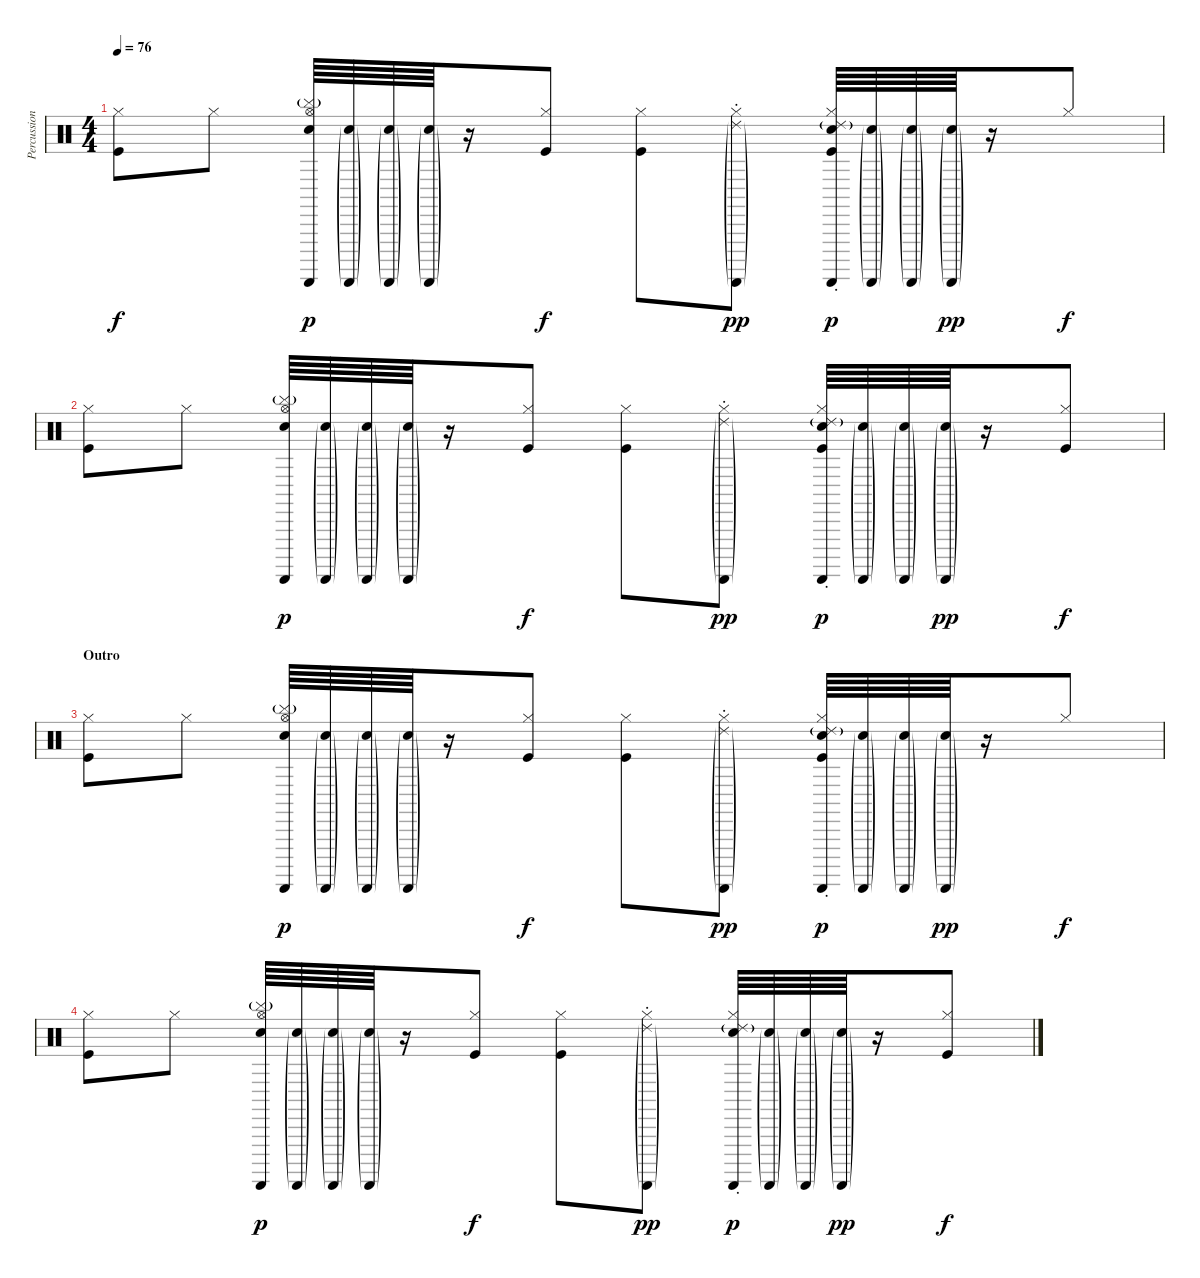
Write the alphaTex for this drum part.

\track ("Percussion" "Percussion") {instrument percussion}
\staff {score}
\articulation defaults
\ts (4 4)
\tempo 76
\clef neutral
\ks c
("Hi-Hat (closed)" "Kick (hit)").8{dy f} "Hi-Hat (closed)".8 ("Hi-Hat (open)" "Cymbal (hit)"{g} "Snare (hit) 2" "Guiro (scrap-return)").64{dy p} ("Snare (hit) 2"{g} "Guiro (scrap-return)"{g}).64 ("Snare (hit) 2"{g} "Guiro (scrap-return)"{g}).64 ("Snare (hit) 2"{g} "Guiro (scrap-return)"{g}).64 r.16 ("Hi-Hat (closed)" "Kick (hit)").8{dy f} ("Hi-Hat (closed)" "Kick (hit)").8 ("Hi-Hat (closed)" "Ride (choke) 2"{g} "Guiro (scrap-return)"{g}).8{dy pp} ("Hi-Hat (closed)" "Ride (choke) 2"{g} "Snare (hit) 2" "Guiro (scrap-return)" "Kick (hit)").64{dy p} ("Snare (hit) 2"{g} "Guiro (scrap-return)"{g}).64 ("Snare (hit) 2"{g} "Guiro (scrap-return)"{g}).64 ("Snare (hit) 2"{g} "Guiro (scrap-return)"{g}).64{dy pp} r.16 "Hi-Hat (closed)".8{dy f} |
("Hi-Hat (closed)" "Kick (hit)").8 "Hi-Hat (closed)".8 ("Hi-Hat (open)" "Cymbal (hit)"{g} "Snare (hit) 2" "Guiro (scrap-return)").64{dy p} ("Snare (hit) 2"{g} "Guiro (scrap-return)"{g}).64 ("Snare (hit) 2"{g} "Guiro (scrap-return)"{g}).64 ("Snare (hit) 2"{g} "Guiro (scrap-return)"{g}).64 r.16 ("Hi-Hat (closed)" "Kick (hit)").8{dy f} ("Hi-Hat (closed)" "Kick (hit)").8 ("Hi-Hat (closed)" "Ride (choke) 2"{g} "Guiro (scrap-return)"{g}).8{dy pp} ("Hi-Hat (closed)" "Ride (choke) 2"{g} "Snare (hit) 2" "Guiro (scrap-return)" "Kick (hit)").64{dy p} ("Snare (hit) 2"{g} "Guiro (scrap-return)"{g}).64 ("Snare (hit) 2"{g} "Guiro (scrap-return)"{g}).64 ("Snare (hit) 2"{g} "Guiro (scrap-return)"{g}).64{dy pp} r.16 ("Hi-Hat (closed)" "Kick (hit)").8{dy f} |
\section ("" "Outro")
("Hi-Hat (closed)" "Kick (hit)").8 "Hi-Hat (closed)".8 ("Hi-Hat (open)" "Cymbal (hit)"{g} "Snare (hit) 2" "Guiro (scrap-return)").64{dy p} ("Snare (hit) 2"{g} "Guiro (scrap-return)"{g}).64 ("Snare (hit) 2"{g} "Guiro (scrap-return)"{g}).64 ("Snare (hit) 2"{g} "Guiro (scrap-return)"{g}).64 r.16 ("Hi-Hat (closed)" "Kick (hit)").8{dy f} ("Hi-Hat (closed)" "Kick (hit)").8 ("Hi-Hat (closed)" "Ride (choke) 2"{g} "Guiro (scrap-return)"{g}).8{dy pp} ("Hi-Hat (closed)" "Ride (choke) 2"{g} "Snare (hit) 2" "Guiro (scrap-return)" "Kick (hit)").64{dy p} ("Snare (hit) 2"{g} "Guiro (scrap-return)"{g}).64 ("Snare (hit) 2"{g} "Guiro (scrap-return)"{g}).64 ("Snare (hit) 2"{g} "Guiro (scrap-return)"{g}).64{dy pp} r.16 "Hi-Hat (closed)".8{dy f} |
("Hi-Hat (closed)" "Kick (hit)").8 "Hi-Hat (closed)".8 ("Hi-Hat (open)" "Cymbal (hit)"{g} "Snare (hit) 2" "Guiro (scrap-return)").64{dy p} ("Snare (hit) 2"{g} "Guiro (scrap-return)"{g}).64 ("Snare (hit) 2"{g} "Guiro (scrap-return)"{g}).64 ("Snare (hit) 2"{g} "Guiro (scrap-return)"{g}).64 r.16 ("Hi-Hat (closed)" "Kick (hit)").8{dy f} ("Hi-Hat (closed)" "Kick (hit)").8 ("Hi-Hat (closed)" "Ride (choke) 2"{g} "Guiro (scrap-return)"{g}).8{dy pp} ("Hi-Hat (closed)" "Ride (choke) 2"{g} "Snare (hit) 2" "Guiro (scrap-return)").64{dy p} ("Snare (hit) 2"{g} "Guiro (scrap-return)"{g}).64 ("Snare (hit) 2"{g} "Guiro (scrap-return)"{g}).64 ("Snare (hit) 2"{g} "Guiro (scrap-return)"{g}).64{dy pp} r.16 ("Hi-Hat (closed)" "Kick (hit)").8{dy f}
